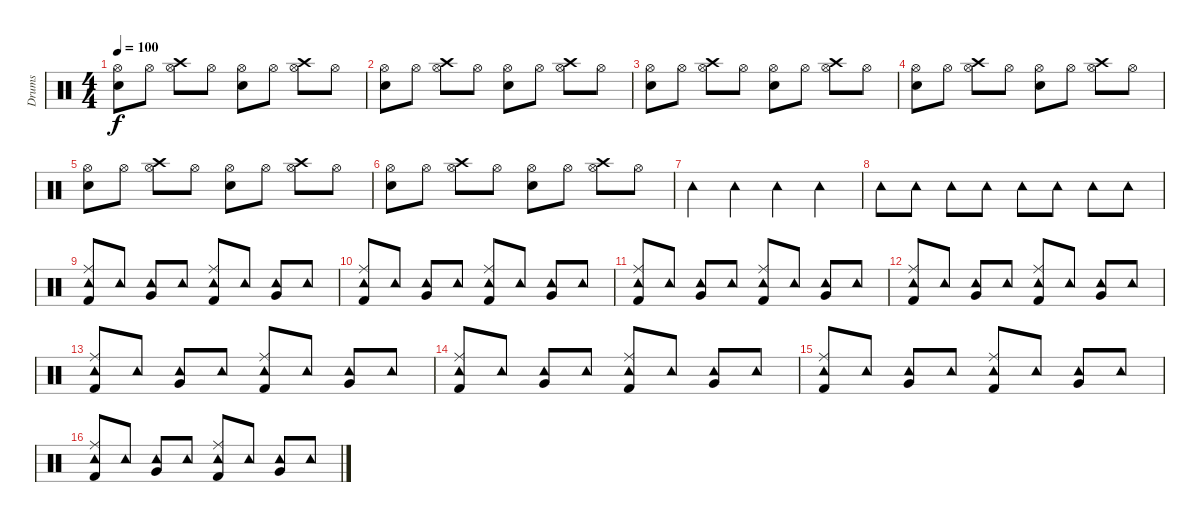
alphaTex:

\track ("Drums" "Drums") {instrument percussion}
\staff {score}
\articulation defaults
\ts (4 4)
\tempo 100
\clef neutral
\ks c
("Snare (hit) 2" "Hi-Hat (open)").8{dy f} "Hi-Hat (open)".8 ("Crash high (hit)" "Hi-Hat (open)").8 "Hi-Hat (open)".8 ("Snare (hit) 2" "Hi-Hat (open)").8 "Hi-Hat (open)".8 ("Crash high (hit)" "Hi-Hat (open)").8 "Hi-Hat (open)".8 |
("Snare (hit) 2" "Hi-Hat (open)").8 "Hi-Hat (open)".8 ("Crash high (hit)" "Hi-Hat (open)").8 "Hi-Hat (open)".8 ("Snare (hit) 2" "Hi-Hat (open)").8 "Hi-Hat (open)".8 ("Crash high (hit)" "Hi-Hat (open)").8 "Hi-Hat (open)".8 |
("Snare (hit) 2" "Hi-Hat (open)").8 "Hi-Hat (open)".8 ("Crash high (hit)" "Hi-Hat (open)").8 "Hi-Hat (open)".8 ("Snare (hit) 2" "Hi-Hat (open)").8 "Hi-Hat (open)".8 ("Crash high (hit)" "Hi-Hat (open)").8 "Hi-Hat (open)".8 |
("Snare (hit) 2" "Hi-Hat (open)").8 "Hi-Hat (open)".8 ("Crash high (hit)" "Hi-Hat (open)").8 "Hi-Hat (open)".8 ("Snare (hit) 2" "Hi-Hat (open)").8 "Hi-Hat (open)".8 ("Crash high (hit)" "Hi-Hat (open)").8 "Hi-Hat (open)".8 |
("Snare (hit) 2" "Hi-Hat (open)").8 "Hi-Hat (open)".8 ("Crash high (hit)" "Hi-Hat (open)").8 "Hi-Hat (open)".8 ("Snare (hit) 2" "Hi-Hat (open)").8 "Hi-Hat (open)".8 ("Crash high (hit)" "Hi-Hat (open)").8 "Hi-Hat (open)".8 |
("Snare (hit) 2" "Hi-Hat (open)").8 "Hi-Hat (open)".8 ("Crash high (hit)" "Hi-Hat (open)").8 "Hi-Hat (open)".8 ("Snare (hit) 2" "Hi-Hat (open)").8 "Hi-Hat (open)".8 ("Crash high (hit)" "Hi-Hat (open)").8 "Hi-Hat (open)".8 |
"Tambourine (hit)".4 "Tambourine (hit)".4 "Tambourine (hit)".4 "Tambourine (hit)".4 |
"Tambourine (hit)".8 "Tambourine (hit)".8 "Tambourine (hit)".8 "Tambourine (hit)".8 "Tambourine (hit)".8 "Tambourine (hit)".8 "Tambourine (hit)".8 "Tambourine (hit)".8 |
("Ride (middle)" "Kick (hit) 2" "Tambourine (hit)").8 "Tambourine (hit)".8 ("Very Low Tom (hit)" "Tambourine (hit)").8 "Tambourine (hit)".8 ("Ride (middle)" "Kick (hit) 2" "Tambourine (hit)").8 "Tambourine (hit)".8 ("Very Low Tom (hit)" "Tambourine (hit)").8 "Tambourine (hit)".8 |
("Ride (middle)" "Kick (hit) 2" "Tambourine (hit)").8 "Tambourine (hit)".8 ("Very Low Tom (hit)" "Tambourine (hit)").8 "Tambourine (hit)".8 ("Ride (middle)" "Kick (hit) 2" "Tambourine (hit)").8 "Tambourine (hit)".8 ("Very Low Tom (hit)" "Tambourine (hit)").8 "Tambourine (hit)".8 |
("Ride (middle)" "Kick (hit) 2" "Tambourine (hit)").8 "Tambourine (hit)".8 ("Very Low Tom (hit)" "Tambourine (hit)").8 "Tambourine (hit)".8 ("Ride (middle)" "Kick (hit) 2" "Tambourine (hit)").8 "Tambourine (hit)".8 ("Very Low Tom (hit)" "Tambourine (hit)").8 "Tambourine (hit)".8 |
("Ride (middle)" "Kick (hit) 2" "Tambourine (hit)").8 "Tambourine (hit)".8 ("Very Low Tom (hit)" "Tambourine (hit)").8 "Tambourine (hit)".8 ("Ride (middle)" "Kick (hit) 2" "Tambourine (hit)").8 "Tambourine (hit)".8 ("Very Low Tom (hit)" "Tambourine (hit)").8 "Tambourine (hit)".8 |
("Ride (middle)" "Kick (hit) 2" "Tambourine (hit)").8 "Tambourine (hit)".8 ("Very Low Tom (hit)" "Tambourine (hit)").8 "Tambourine (hit)".8 ("Ride (middle)" "Kick (hit) 2" "Tambourine (hit)").8 "Tambourine (hit)".8 ("Very Low Tom (hit)" "Tambourine (hit)").8 "Tambourine (hit)".8 |
("Ride (middle)" "Kick (hit) 2" "Tambourine (hit)").8 "Tambourine (hit)".8 ("Very Low Tom (hit)" "Tambourine (hit)").8 "Tambourine (hit)".8 ("Ride (middle)" "Kick (hit) 2" "Tambourine (hit)").8 "Tambourine (hit)".8 ("Very Low Tom (hit)" "Tambourine (hit)").8 "Tambourine (hit)".8 |
("Ride (middle)" "Kick (hit) 2" "Tambourine (hit)").8 "Tambourine (hit)".8 ("Very Low Tom (hit)" "Tambourine (hit)").8 "Tambourine (hit)".8 ("Ride (middle)" "Kick (hit) 2" "Tambourine (hit)").8 "Tambourine (hit)".8 ("Very Low Tom (hit)" "Tambourine (hit)").8 "Tambourine (hit)".8 |
("Ride (middle)" "Kick (hit) 2" "Tambourine (hit)").8 "Tambourine (hit)".8 ("Very Low Tom (hit)" "Tambourine (hit)").8 "Tambourine (hit)".8 ("Ride (middle)" "Kick (hit) 2" "Tambourine (hit)").8 "Tambourine (hit)".8 ("Very Low Tom (hit)" "Tambourine (hit)").8 "Tambourine (hit)".8
